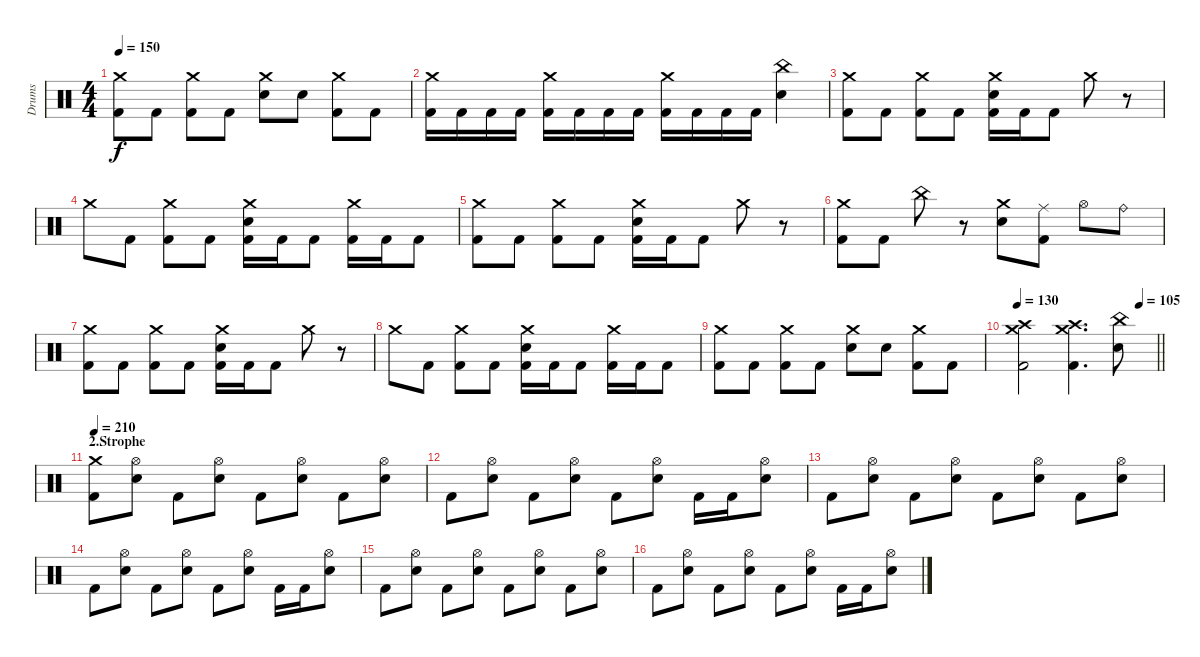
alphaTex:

\track ("Drums" "Drums") {instrument percussion}
\staff {score}
\articulation defaults
\ts (4 4)
\tempo 150
\clef neutral
\ks c
("Crash medium (hit)" "Kick (hit) 2").8{dy f} "Kick (hit) 2".8 ("Crash medium (hit)" "Kick (hit) 2").8 "Kick (hit) 2".8 ("Crash medium (hit)" "Electric Snare (hit)").8 "Electric Snare (hit)".8 ("Crash medium (hit)" "Kick (hit) 2").8 "Kick (hit) 2".8 |
("Crash medium (hit)" "Kick (hit) 2").16 "Kick (hit) 2".16 "Kick (hit) 2".16 "Kick (hit) 2".16 ("Crash medium (hit)" "Kick (hit) 2").16 "Kick (hit) 2".16 "Kick (hit) 2".16 "Kick (hit) 2".16 ("Crash medium (hit)" "Kick (hit) 2").16 "Kick (hit) 2".16 "Kick (hit) 2".16 "Kick (hit) 2".16 ("China (hit)" "Electric Snare (hit)").4 |
("Crash medium (hit)" "Kick (hit) 2").8 "Kick (hit) 2".8 ("Crash medium (hit)" "Kick (hit) 2").8 "Kick (hit) 2".8 ("Crash medium (hit)" "Electric Snare (hit)" "Kick (hit) 2").16 "Kick (hit) 2".16 "Kick (hit) 2".8 "Crash medium (hit)".8 r.8 |
"Crash medium (hit)".8 "Kick (hit) 2".8 ("Crash medium (hit)" "Kick (hit) 2").8 "Kick (hit) 2".8 ("Crash medium (hit)" "Electric Snare (hit)" "Kick (hit) 2").16 "Kick (hit) 2".16 "Kick (hit) 2".8 ("Crash medium (hit)" "Kick (hit) 2").16 "Kick (hit) 2".16 "Kick (hit) 2".8 |
("Crash medium (hit)" "Kick (hit) 2").8 "Kick (hit) 2".8 ("Crash medium (hit)" "Kick (hit) 2").8 "Kick (hit) 2".8 ("Crash medium (hit)" "Electric Snare (hit)" "Kick (hit) 2").16 "Kick (hit) 2".16 "Kick (hit) 2".8 "Crash medium (hit)".8 r.8 |
("Crash medium (hit)" "Kick (hit) 2").8 "Kick (hit) 2".8 "China (hit)".8 r.8 ("Crash medium (hit)" "Electric Snare (hit)").8 ("Ride (middle)" "Kick (hit) 2").8 "Hi-Hat (open)".8 "Ride (bell)".8 |
("Crash medium (hit)" "Kick (hit) 2").8 "Kick (hit) 2".8 ("Crash medium (hit)" "Kick (hit) 2").8 "Kick (hit) 2".8 ("Crash medium (hit)" "Electric Snare (hit)" "Kick (hit) 2").16 "Kick (hit) 2".16 "Kick (hit) 2".8 "Crash medium (hit)".8 r.8 |
"Crash medium (hit)".8 "Kick (hit) 2".8 ("Crash medium (hit)" "Kick (hit) 2").8 "Kick (hit) 2".8 ("Crash medium (hit)" "Electric Snare (hit)" "Kick (hit) 2").16 "Kick (hit) 2".16 "Kick (hit) 2".8 ("Crash medium (hit)" "Kick (hit) 2").16 "Kick (hit) 2".16 "Kick (hit) 2".8 |
("Crash medium (hit)" "Kick (hit) 2").8 "Kick (hit) 2".8 ("Crash medium (hit)" "Kick (hit) 2").8 "Kick (hit) 2".8 ("Crash medium (hit)" "Electric Snare (hit)").8 "Electric Snare (hit)".8 ("Crash medium (hit)" "Kick (hit) 2").8 "Kick (hit) 2".8 |
\tempo 130
\tempo (105 0.875)
\barLineRight lightlight
("Crash high (hit)" "Crash medium (hit)" "Kick (hit) 2").2 ("Crash high (hit)" "Crash medium (hit)" "Kick (hit) 2").4{d} ("China (hit)" "Electric Snare (hit)").8 |
\section ("" "2.Strophe")
\tempo 210
("Crash medium (hit)" "Kick (hit) 2").8 ("Hi-Hat (open)" "Electric Snare (hit)").8 "Kick (hit) 2".8 ("Hi-Hat (open)" "Electric Snare (hit)").8 "Kick (hit) 2".8 ("Hi-Hat (open)" "Electric Snare (hit)").8 "Kick (hit) 2".8 ("Hi-Hat (open)" "Electric Snare (hit)").8 |
"Kick (hit) 2".8 ("Hi-Hat (open)" "Electric Snare (hit)").8 "Kick (hit) 2".8 ("Hi-Hat (open)" "Electric Snare (hit)").8 "Kick (hit) 2".8 ("Hi-Hat (open)" "Electric Snare (hit)").8 "Kick (hit) 2".16 "Kick (hit) 2".16 ("Hi-Hat (open)" "Electric Snare (hit)").8 |
"Kick (hit) 2".8 ("Hi-Hat (open)" "Electric Snare (hit)").8 "Kick (hit) 2".8 ("Hi-Hat (open)" "Electric Snare (hit)").8 "Kick (hit) 2".8 ("Hi-Hat (open)" "Electric Snare (hit)").8 "Kick (hit) 2".8 ("Hi-Hat (open)" "Electric Snare (hit)").8 |
"Kick (hit) 2".8 ("Hi-Hat (open)" "Electric Snare (hit)").8 "Kick (hit) 2".8 ("Hi-Hat (open)" "Electric Snare (hit)").8 "Kick (hit) 2".8 ("Hi-Hat (open)" "Electric Snare (hit)").8 "Kick (hit) 2".16 "Kick (hit) 2".16 ("Hi-Hat (open)" "Electric Snare (hit)").8 |
"Kick (hit) 2".8 ("Hi-Hat (open)" "Electric Snare (hit)").8 "Kick (hit) 2".8 ("Hi-Hat (open)" "Electric Snare (hit)").8 "Kick (hit) 2".8 ("Hi-Hat (open)" "Electric Snare (hit)").8 "Kick (hit) 2".8 ("Hi-Hat (open)" "Electric Snare (hit)").8 |
"Kick (hit) 2".8 ("Hi-Hat (open)" "Electric Snare (hit)").8 "Kick (hit) 2".8 ("Hi-Hat (open)" "Electric Snare (hit)").8 "Kick (hit) 2".8 ("Hi-Hat (open)" "Electric Snare (hit)").8 "Kick (hit) 2".16 "Kick (hit) 2".16 ("Hi-Hat (open)" "Electric Snare (hit)").8
